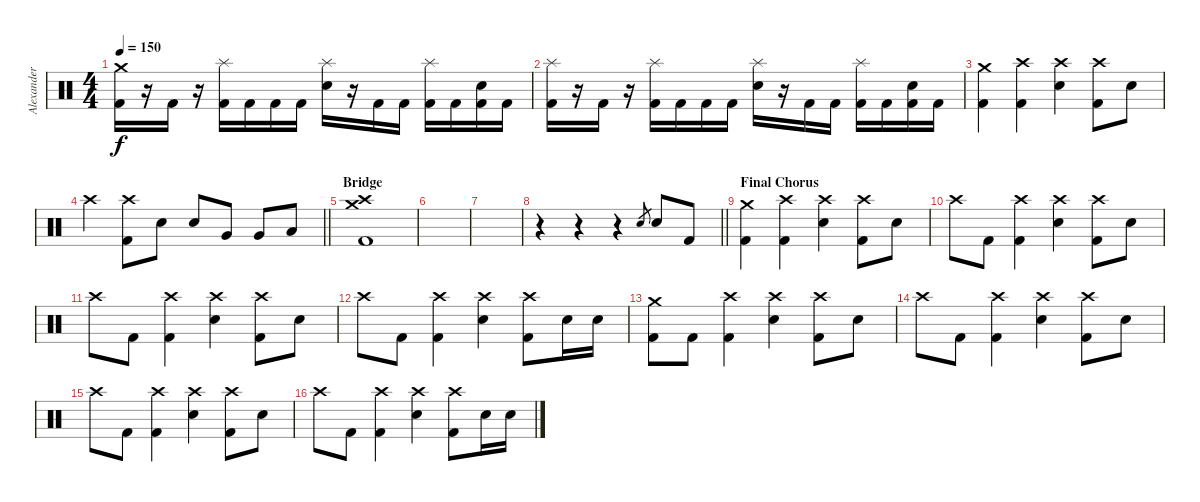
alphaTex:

\track ("Alexander Sveningsson" "Alexander ") {instrument percussion}
\staff {score}
\articulation defaults
\ts (4 4)
\tempo 150
\clef neutral
\ks c
("Crash medium (hit)" "Kick (hit) 2").16{dy f} r.16 "Kick (hit) 2".16 r.16 ("Splash (hit)" "Kick (hit) 2").16 "Kick (hit) 2".16 "Kick (hit) 2".16 "Kick (hit) 2".16 ("Splash (hit)" "Electric Snare (hit)").16 r.16 "Kick (hit) 2".16 "Kick (hit) 2".16 ("Splash (hit)" "Kick (hit) 2").16 "Kick (hit) 2".16 ("Electric Snare (hit)" "Kick (hit) 2").16 "Kick (hit) 2".16 |
("Splash (hit)" "Kick (hit) 2").16 r.16 "Kick (hit) 2".16 r.16 ("Splash (hit)" "Kick (hit) 2").16 "Kick (hit) 2".16 "Kick (hit) 2".16 "Kick (hit) 2".16 ("Splash (hit)" "Electric Snare (hit)").16 r.16 "Kick (hit) 2".16 "Kick (hit) 2".16 ("Splash (hit)" "Kick (hit) 2").16 "Kick (hit) 2".16 ("Electric Snare (hit)" "Kick (hit) 2").16 "Kick (hit) 2".16 |
("Crash medium (hit)" "Kick (hit) 2").4 ("Crash high (hit)" "Kick (hit) 2").4 ("Crash high (hit)" "Electric Snare (hit)").4 ("Crash high (hit)" "Kick (hit) 2").8 "Electric Snare (hit)".8 |
\barLineRight lightlight "Crash high (hit)".4
("Crash high (hit)" "Kick (hit) 2").8 "Electric Snare (hit)".8 "Electric Snare (hit)".8 "Very Low Tom (hit)".8 "Very Low Tom (hit)".8 "Low Floor Tom (hit)".8 |
\section ("" "Bridge")
("Crash medium (hit)" "Crash high (hit)" "Kick (hit) 2").1 |
|
|
\barLineRight lightlight
r.4 r.4 r.4 "Electric Snare (hit)".8{gr} "Electric Snare (hit)".8 "Kick (hit) 2".8 |
\section ("" "Final Chorus")
("Crash medium (hit)" "Kick (hit) 2").4 ("Crash high (hit)" "Kick (hit) 2").4 ("Crash high (hit)" "Electric Snare (hit)").4 ("Crash high (hit)" "Kick (hit) 2").8 "Electric Snare (hit)".8 |
"Crash high (hit)".8 "Kick (hit) 2".8 ("Crash high (hit)" "Kick (hit) 2").4 ("Crash high (hit)" "Electric Snare (hit)").4 ("Crash high (hit)" "Kick (hit) 2").8 "Electric Snare (hit)".8 |
"Crash high (hit)".8 "Kick (hit) 2".8 ("Crash high (hit)" "Kick (hit) 2").4 ("Crash high (hit)" "Electric Snare (hit)").4 ("Crash high (hit)" "Kick (hit) 2").8 "Electric Snare (hit)".8 |
"Crash high (hit)".8 "Kick (hit) 2".8 ("Crash high (hit)" "Kick (hit) 2").4 ("Crash high (hit)" "Electric Snare (hit)").4 ("Crash high (hit)" "Kick (hit) 2").8 "Electric Snare (hit)".16 "Electric Snare (hit)".16 |
("Crash medium (hit)" "Kick (hit) 2").8 "Kick (hit) 2".8 ("Crash high (hit)" "Kick (hit) 2").4 ("Crash high (hit)" "Electric Snare (hit)").4 ("Crash high (hit)" "Kick (hit) 2").8 "Electric Snare (hit)".8 |
"Crash high (hit)".8 "Kick (hit) 2".8 ("Crash high (hit)" "Kick (hit) 2").4 ("Crash high (hit)" "Electric Snare (hit)").4 ("Crash high (hit)" "Kick (hit) 2").8 "Electric Snare (hit)".8 |
"Crash high (hit)".8 "Kick (hit) 2".8 ("Crash high (hit)" "Kick (hit) 2").4 ("Crash high (hit)" "Electric Snare (hit)").4 ("Crash high (hit)" "Kick (hit) 2").8 "Electric Snare (hit)".8 |
"Crash high (hit)".8 "Kick (hit) 2".8 ("Crash high (hit)" "Kick (hit) 2").4 ("Crash high (hit)" "Electric Snare (hit)").4 ("Crash high (hit)" "Kick (hit) 2").8 "Electric Snare (hit)".16 "Electric Snare (hit)".16
